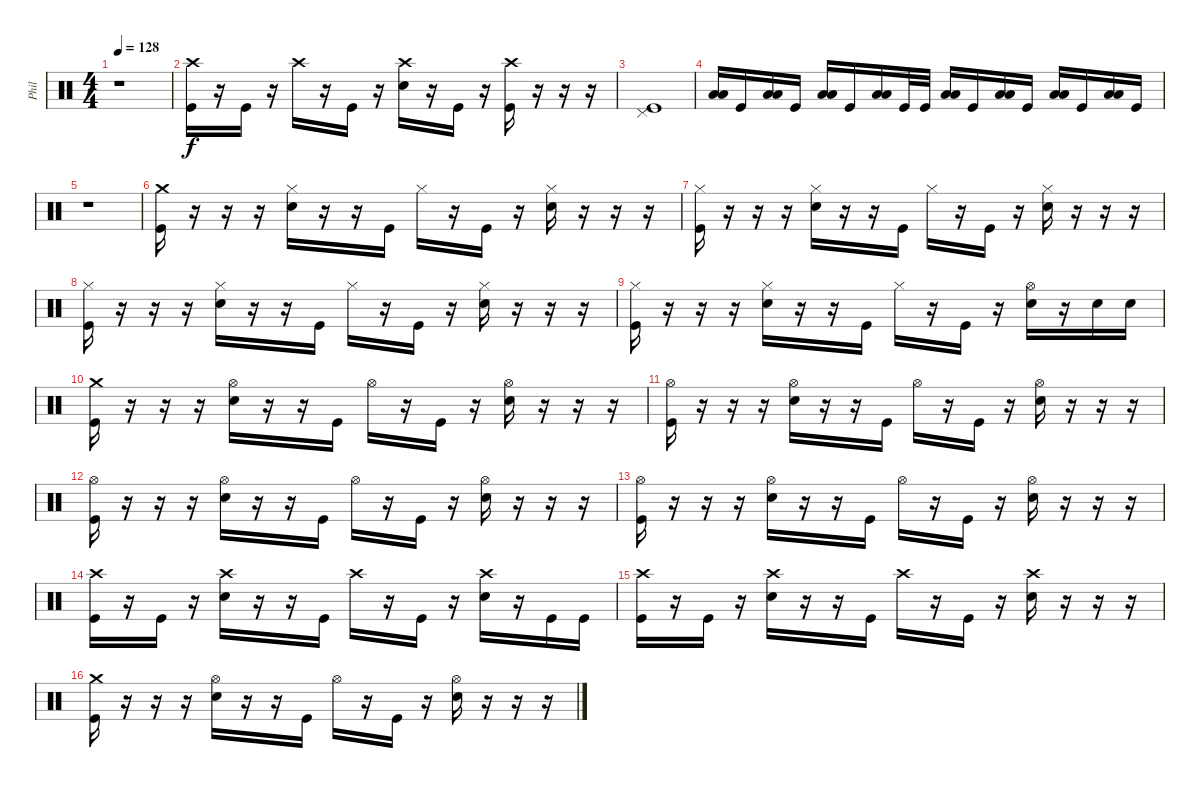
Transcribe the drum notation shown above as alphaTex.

\track ("Phil" "Phil") {instrument percussion}
\staff {score}
\articulation defaults
\ts (4 4)
\tempo 128
\clef neutral
\ks c
r.1{dy f} |
("Crash high (hit)" "Kick (hit)").16 r.16 "Kick (hit)".16 r.16 "Crash high (hit)".16 r.16 "Kick (hit)".16 r.16 ("Crash high (hit)" "Electric Snare (hit)").16 r.16 "Kick (hit)".16 r.16 ("Crash high (hit)" "Kick (hit)").16 r.16 r.16 r.16 |
("Pedal Hi-Hat (hit)" "Kick (hit)").1 |
("Low Floor Tom (hit)" "Low Tom (hit)").16 "Kick (hit)".16 ("Low Floor Tom (hit)" "Low Tom (hit)").16 "Kick (hit)".16 ("Low Floor Tom (hit)" "Low Tom (hit)").16 "Kick (hit)".16 ("Low Floor Tom (hit)" "Low Tom (hit)").16 "Kick (hit)".32 "Kick (hit)".32 ("Low Floor Tom (hit)" "Low Tom (hit)").16 "Kick (hit)".16 ("Low Floor Tom (hit)" "Low Tom (hit)").16 "Kick (hit)".16 ("Low Floor Tom (hit)" "Low Tom (hit)").16 "Kick (hit)".16 ("Low Floor Tom (hit)" "Low Tom (hit)").16 "Kick (hit)".16 |
r.1 |
("Crash medium (hit)" "Kick (hit)").16 r.16 r.16 r.16 ("Hi-Hat (closed)" "Electric Snare (hit)").16 r.16 r.16 "Kick (hit)".16 "Hi-Hat (closed)".16 r.16 "Kick (hit)".16 r.16 ("Hi-Hat (closed)" "Electric Snare (hit)").16 r.16 r.16 r.16 |
("Hi-Hat (closed)" "Kick (hit)").16 r.16 r.16 r.16 ("Hi-Hat (closed)" "Electric Snare (hit)").16 r.16 r.16 "Kick (hit)".16 "Hi-Hat (closed)".16 r.16 "Kick (hit)".16 r.16 ("Hi-Hat (closed)" "Electric Snare (hit)").16 r.16 r.16 r.16 |
("Hi-Hat (closed)" "Kick (hit)").16 r.16 r.16 r.16 ("Hi-Hat (closed)" "Electric Snare (hit)").16 r.16 r.16 "Kick (hit)".16 "Hi-Hat (closed)".16 r.16 "Kick (hit)".16 r.16 ("Hi-Hat (closed)" "Electric Snare (hit)").16 r.16 r.16 r.16 |
("Hi-Hat (closed)" "Kick (hit)").16 r.16 r.16 r.16 ("Hi-Hat (closed)" "Electric Snare (hit)").16 r.16 r.16 "Kick (hit)".16 "Hi-Hat (closed)".16 r.16 "Kick (hit)".16 r.16 ("Hi-Hat (open)" "Electric Snare (hit)").16 r.16 "Electric Snare (hit)".16 "Electric Snare (hit)".16 |
("Crash medium (hit)" "Kick (hit)").16 r.16 r.16 r.16 ("Hi-Hat (open)" "Electric Snare (hit)").16 r.16 r.16 "Kick (hit)".16 "Hi-Hat (open)".16 r.16 "Kick (hit)".16 r.16 ("Hi-Hat (open)" "Electric Snare (hit)").16 r.16 r.16 r.16 |
("Hi-Hat (open)" "Kick (hit)").16 r.16 r.16 r.16 ("Hi-Hat (open)" "Electric Snare (hit)").16 r.16 r.16 "Kick (hit)".16 "Hi-Hat (open)".16 r.16 "Kick (hit)".16 r.16 ("Hi-Hat (open)" "Electric Snare (hit)").16 r.16 r.16 r.16 |
("Hi-Hat (open)" "Kick (hit)").16 r.16 r.16 r.16 ("Hi-Hat (open)" "Electric Snare (hit)").16 r.16 r.16 "Kick (hit)".16 "Hi-Hat (open)".16 r.16 "Kick (hit)".16 r.16 ("Hi-Hat (open)" "Electric Snare (hit)").16 r.16 r.16 r.16 |
("Hi-Hat (open)" "Kick (hit)").16 r.16 r.16 r.16 ("Hi-Hat (open)" "Electric Snare (hit)").16 r.16 r.16 "Kick (hit)".16 "Hi-Hat (open)".16 r.16 "Kick (hit)".16 r.16 ("Hi-Hat (open)" "Electric Snare (hit)").16 r.16 r.16 r.16 |
("Crash high (hit)" "Kick (hit)").16 r.16 "Kick (hit)".16 r.16 ("Crash high (hit)" "Electric Snare (hit)").16 r.16 r.16 "Kick (hit)".16 "Crash high (hit)".16 r.16 "Kick (hit)".16 r.16 ("Crash high (hit)" "Electric Snare (hit)").16 r.16 "Kick (hit)".16 "Kick (hit)".16 |
("Crash high (hit)" "Kick (hit)").16 r.16 "Kick (hit)".16 r.16 ("Crash high (hit)" "Electric Snare (hit)").16 r.16 r.16 "Kick (hit)".16 "Crash high (hit)".16 r.16 "Kick (hit)".16 r.16 ("Crash high (hit)" "Electric Snare (hit)").16 r.16 r.16 r.16 |
("Crash medium (hit)" "Kick (hit)").16 r.16 r.16 r.16 ("Hi-Hat (open)" "Electric Snare (hit)").16 r.16 r.16 "Kick (hit)".16 "Hi-Hat (open)".16 r.16 "Kick (hit)".16 r.16 ("Hi-Hat (open)" "Electric Snare (hit)").16 r.16 r.16 r.16
